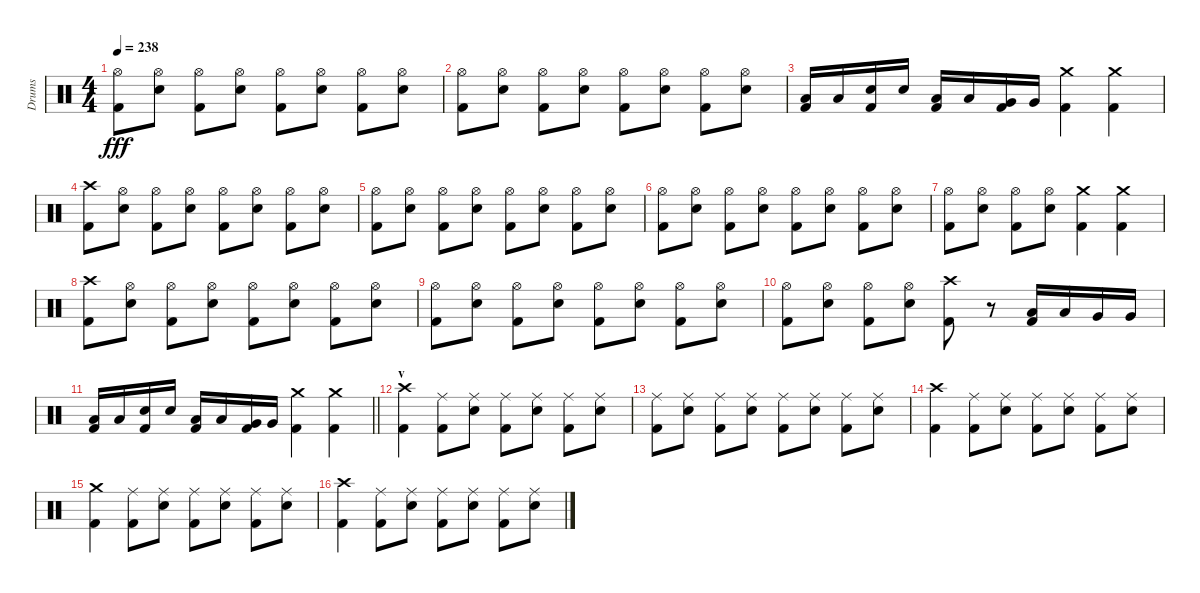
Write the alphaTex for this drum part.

\track ("Drums" "Drums") {instrument percussion}
\staff {score}
\articulation defaults
\ts (4 4)
\tempo 238
\clef neutral
\ks c
("Hi-Hat (open)" "Kick (hit) 2").8{dy fff} ("Hi-Hat (open)" "Electric Snare (hit)").8 ("Hi-Hat (open)" "Kick (hit) 2").8 ("Hi-Hat (open)" "Electric Snare (hit)").8 ("Hi-Hat (open)" "Kick (hit) 2").8 ("Hi-Hat (open)" "Electric Snare (hit)").8 ("Hi-Hat (open)" "Kick (hit) 2").8 ("Hi-Hat (open)" "Electric Snare (hit)").8 |
("Hi-Hat (open)" "Kick (hit) 2").8 ("Hi-Hat (open)" "Electric Snare (hit)").8 ("Hi-Hat (open)" "Kick (hit) 2").8 ("Hi-Hat (open)" "Electric Snare (hit)").8 ("Hi-Hat (open)" "Kick (hit) 2").8 ("Hi-Hat (open)" "Electric Snare (hit)").8 ("Hi-Hat (open)" "Kick (hit) 2").8 ("Hi-Hat (open)" "Electric Snare (hit)").8 |
("Low Tom (hit)" "Kick (hit) 2").16 "Low Tom (hit)".16 ("Electric Snare (hit)" "Kick (hit) 2").16 "Electric Snare (hit)".16 ("Low Tom (hit)" "Kick (hit) 2").16 "Low Tom (hit)".16 ("Very Low Tom (hit)" "Kick (hit) 2").16 "Very Low Tom (hit)".16 ("Crash medium (hit)" "Kick (hit) 2").4 ("Crash medium (hit)" "Kick (hit) 2").4 |
("Crash high (hit)" "Kick (hit) 2").8 ("Hi-Hat (open)" "Electric Snare (hit)").8 ("Hi-Hat (open)" "Kick (hit) 2").8 ("Hi-Hat (open)" "Electric Snare (hit)").8 ("Hi-Hat (open)" "Kick (hit) 2").8 ("Hi-Hat (open)" "Electric Snare (hit)").8 ("Hi-Hat (open)" "Kick (hit) 2").8 ("Hi-Hat (open)" "Electric Snare (hit)").8 |
("Hi-Hat (open)" "Kick (hit) 2").8 ("Hi-Hat (open)" "Electric Snare (hit)").8 ("Hi-Hat (open)" "Kick (hit) 2").8 ("Hi-Hat (open)" "Electric Snare (hit)").8 ("Hi-Hat (open)" "Kick (hit) 2").8 ("Hi-Hat (open)" "Electric Snare (hit)").8 ("Hi-Hat (open)" "Kick (hit) 2").8 ("Hi-Hat (open)" "Electric Snare (hit)").8 |
("Hi-Hat (open)" "Kick (hit) 2").8 ("Hi-Hat (open)" "Electric Snare (hit)").8 ("Hi-Hat (open)" "Kick (hit) 2").8 ("Hi-Hat (open)" "Electric Snare (hit)").8 ("Hi-Hat (open)" "Kick (hit) 2").8 ("Hi-Hat (open)" "Electric Snare (hit)").8 ("Hi-Hat (open)" "Kick (hit) 2").8 ("Hi-Hat (open)" "Electric Snare (hit)").8 |
("Hi-Hat (open)" "Kick (hit) 2").8 ("Hi-Hat (open)" "Electric Snare (hit)").8 ("Hi-Hat (open)" "Kick (hit) 2").8 ("Hi-Hat (open)" "Electric Snare (hit)").8 ("Crash medium (hit)" "Kick (hit) 2").4 ("Crash medium (hit)" "Kick (hit) 2").4 |
("Crash high (hit)" "Kick (hit) 2").8 ("Hi-Hat (open)" "Electric Snare (hit)").8 ("Hi-Hat (open)" "Kick (hit) 2").8 ("Hi-Hat (open)" "Electric Snare (hit)").8 ("Hi-Hat (open)" "Kick (hit) 2").8 ("Hi-Hat (open)" "Electric Snare (hit)").8 ("Hi-Hat (open)" "Kick (hit) 2").8 ("Hi-Hat (open)" "Electric Snare (hit)").8 |
("Hi-Hat (open)" "Kick (hit) 2").8 ("Hi-Hat (open)" "Electric Snare (hit)").8 ("Hi-Hat (open)" "Kick (hit) 2").8 ("Hi-Hat (open)" "Electric Snare (hit)").8 ("Hi-Hat (open)" "Kick (hit) 2").8 ("Hi-Hat (open)" "Electric Snare (hit)").8 ("Hi-Hat (open)" "Kick (hit) 2").8 ("Hi-Hat (open)" "Electric Snare (hit)").8 |
("Hi-Hat (open)" "Kick (hit) 2").8 ("Hi-Hat (open)" "Electric Snare (hit)").8 ("Hi-Hat (open)" "Kick (hit) 2").8 ("Hi-Hat (open)" "Electric Snare (hit)").8 ("Crash high (hit)" "Kick (hit) 2").8 r.8 ("Low Tom (hit)" "Kick (hit) 2").16 "Low Tom (hit)".16 "Very Low Tom (hit)".16 "Very Low Tom (hit)".16 |
\barLineRight lightlight
("Low Tom (hit)" "Kick (hit) 2").16 "Low Tom (hit)".16 ("Electric Snare (hit)" "Kick (hit) 2").16 "Electric Snare (hit)".16 ("Low Tom (hit)" "Kick (hit) 2").16 "Low Tom (hit)".16 ("Very Low Tom (hit)" "Kick (hit) 2").16 "Very Low Tom (hit)".16 ("Crash medium (hit)" "Kick (hit) 2").4 ("Crash medium (hit)" "Kick (hit) 2").4 |
\section ("" "v")
("Crash high (hit)" "Kick (hit) 2").4 ("Ride (middle)" "Kick (hit) 2").8 ("Ride (middle)" "Electric Snare (hit)").8 ("Ride (middle)" "Kick (hit) 2").8 ("Ride (middle)" "Electric Snare (hit)").8 ("Ride (middle)" "Kick (hit) 2").8 ("Ride (middle)" "Electric Snare (hit)").8 |
("Ride (middle)" "Kick (hit) 2").8 ("Ride (middle)" "Electric Snare (hit)").8 ("Ride (middle)" "Kick (hit) 2").8 ("Ride (middle)" "Electric Snare (hit)").8 ("Ride (middle)" "Kick (hit) 2").8 ("Ride (middle)" "Electric Snare (hit)").8 ("Ride (middle)" "Kick (hit) 2").8 ("Ride (middle)" "Electric Snare (hit)").8 |
("Crash high (hit)" "Kick (hit) 2").4 ("Ride (middle)" "Kick (hit) 2").8 ("Ride (middle)" "Electric Snare (hit)").8 ("Ride (middle)" "Kick (hit) 2").8 ("Ride (middle)" "Electric Snare (hit)").8 ("Ride (middle)" "Kick (hit) 2").8 ("Ride (middle)" "Electric Snare (hit)").8 |
("Crash medium (hit)" "Kick (hit) 2").4 ("Ride (middle)" "Kick (hit) 2").8 ("Ride (middle)" "Electric Snare (hit)").8 ("Ride (middle)" "Kick (hit) 2").8 ("Ride (middle)" "Electric Snare (hit)").8 ("Ride (middle)" "Kick (hit) 2").8 ("Ride (middle)" "Electric Snare (hit)").8 |
("Crash high (hit)" "Kick (hit) 2").4 ("Ride (middle)" "Kick (hit) 2").8 ("Ride (middle)" "Electric Snare (hit)").8 ("Ride (middle)" "Kick (hit) 2").8 ("Ride (middle)" "Electric Snare (hit)").8 ("Ride (middle)" "Kick (hit) 2").8 ("Ride (middle)" "Electric Snare (hit)").8
